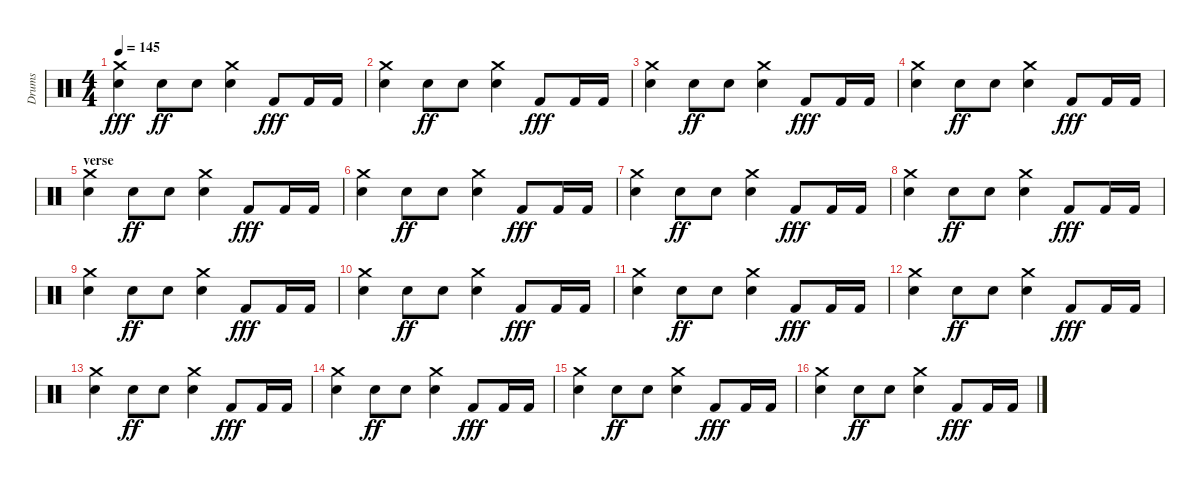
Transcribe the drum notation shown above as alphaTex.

\track ("Drums" "Drums") {instrument percussion}
\staff {score}
\articulation defaults
\ts (4 4)
\tempo 145
\clef neutral
\ks c
("Snare (hit) 2" "Crash medium (hit)").4{dy fff} "Snare (hit) 2".8{dy ff} "Snare (hit) 2".8 ("Crash medium (hit)" "Snare (hit) 2").4 "Kick (hit) 2".8{dy fff} "Kick (hit) 2".16 "Kick (hit) 2".16 |
("Snare (hit) 2" "Crash medium (hit)").4 "Snare (hit) 2".8{dy ff} "Snare (hit) 2".8 ("Crash medium (hit)" "Snare (hit) 2").4 "Kick (hit) 2".8{dy fff} "Kick (hit) 2".16 "Kick (hit) 2".16 |
("Snare (hit) 2" "Crash medium (hit)").4 "Snare (hit) 2".8{dy ff} "Snare (hit) 2".8 ("Crash medium (hit)" "Snare (hit) 2").4 "Kick (hit) 2".8{dy fff} "Kick (hit) 2".16 "Kick (hit) 2".16 |
("Snare (hit) 2" "Crash medium (hit)").4 "Snare (hit) 2".8{dy ff} "Snare (hit) 2".8 ("Crash medium (hit)" "Snare (hit) 2").4 "Kick (hit) 2".8{dy fff} "Kick (hit) 2".16 "Kick (hit) 2".16 |
\section ("" "verse")
("Snare (hit) 2" "Crash medium (hit)").4 "Snare (hit) 2".8{dy ff} "Snare (hit) 2".8 ("Crash medium (hit)" "Snare (hit) 2").4 "Kick (hit) 2".8{dy fff} "Kick (hit) 2".16 "Kick (hit) 2".16 |
("Snare (hit) 2" "Crash medium (hit)").4 "Snare (hit) 2".8{dy ff} "Snare (hit) 2".8 ("Crash medium (hit)" "Snare (hit) 2").4 "Kick (hit) 2".8{dy fff} "Kick (hit) 2".16 "Kick (hit) 2".16 |
("Snare (hit) 2" "Crash medium (hit)").4 "Snare (hit) 2".8{dy ff} "Snare (hit) 2".8 ("Crash medium (hit)" "Snare (hit) 2").4 "Kick (hit) 2".8{dy fff} "Kick (hit) 2".16 "Kick (hit) 2".16 |
("Snare (hit) 2" "Crash medium (hit)").4 "Snare (hit) 2".8{dy ff} "Snare (hit) 2".8 ("Crash medium (hit)" "Snare (hit) 2").4 "Kick (hit) 2".8{dy fff} "Kick (hit) 2".16 "Kick (hit) 2".16 |
("Snare (hit) 2" "Crash medium (hit)").4 "Snare (hit) 2".8{dy ff} "Snare (hit) 2".8 ("Crash medium (hit)" "Snare (hit) 2").4 "Kick (hit) 2".8{dy fff} "Kick (hit) 2".16 "Kick (hit) 2".16 |
("Snare (hit) 2" "Crash medium (hit)").4 "Snare (hit) 2".8{dy ff} "Snare (hit) 2".8 ("Crash medium (hit)" "Snare (hit) 2").4 "Kick (hit) 2".8{dy fff} "Kick (hit) 2".16 "Kick (hit) 2".16 |
("Snare (hit) 2" "Crash medium (hit)").4 "Snare (hit) 2".8{dy ff} "Snare (hit) 2".8 ("Crash medium (hit)" "Snare (hit) 2").4 "Kick (hit) 2".8{dy fff} "Kick (hit) 2".16 "Kick (hit) 2".16 |
("Snare (hit) 2" "Crash medium (hit)").4 "Snare (hit) 2".8{dy ff} "Snare (hit) 2".8 ("Crash medium (hit)" "Snare (hit) 2").4 "Kick (hit) 2".8{dy fff} "Kick (hit) 2".16 "Kick (hit) 2".16 |
("Snare (hit) 2" "Crash medium (hit)").4 "Snare (hit) 2".8{dy ff} "Snare (hit) 2".8 ("Crash medium (hit)" "Snare (hit) 2").4 "Kick (hit) 2".8{dy fff} "Kick (hit) 2".16 "Kick (hit) 2".16 |
("Snare (hit) 2" "Crash medium (hit)").4 "Snare (hit) 2".8{dy ff} "Snare (hit) 2".8 ("Crash medium (hit)" "Snare (hit) 2").4 "Kick (hit) 2".8{dy fff} "Kick (hit) 2".16 "Kick (hit) 2".16 |
("Snare (hit) 2" "Crash medium (hit)").4 "Snare (hit) 2".8{dy ff} "Snare (hit) 2".8 ("Crash medium (hit)" "Snare (hit) 2").4 "Kick (hit) 2".8{dy fff} "Kick (hit) 2".16 "Kick (hit) 2".16 |
("Snare (hit) 2" "Crash medium (hit)").4 "Snare (hit) 2".8{dy ff} "Snare (hit) 2".8 ("Crash medium (hit)" "Snare (hit) 2").4 "Kick (hit) 2".8{dy fff} "Kick (hit) 2".16 "Kick (hit) 2".16
